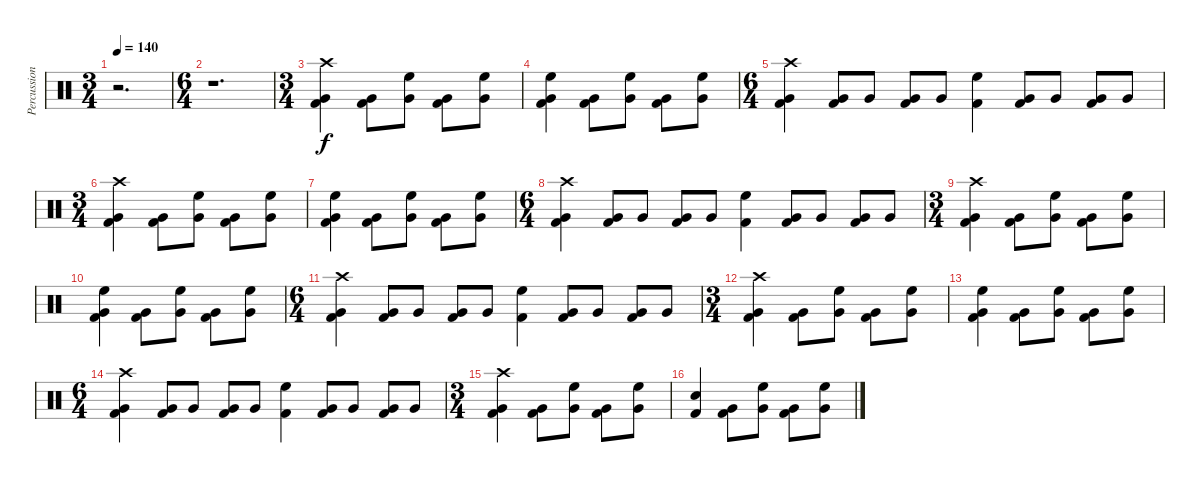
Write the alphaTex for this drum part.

\track ("Percussions" "Percussion") {instrument percussion}
\staff {score}
\articulation defaults
\ts (3 4)
\tempo 140
\clef neutral
\ks c
r.2{d dy f} |
\ts (6 4)
r.1{d} |
\ts (3 4)
("Crash high (hit)" "Very Low Tom (hit)" "Kick (hit) 2").4 ("Very Low Tom (hit)" "Kick (hit) 2").8 ("High Floor Tom (hit)" "Very Low Tom (hit)").8 ("Very Low Tom (hit)" "Kick (hit) 2").8 ("High Floor Tom (hit)" "Very Low Tom (hit)").8 |
("High Floor Tom (hit)" "Very Low Tom (hit)" "Kick (hit) 2").4 ("Very Low Tom (hit)" "Kick (hit) 2").8 ("High Floor Tom (hit)" "Very Low Tom (hit)").8 ("Very Low Tom (hit)" "Kick (hit) 2").8 ("High Floor Tom (hit)" "Very Low Tom (hit)").8 |
\ts (6 4)
("Crash high (hit)" "Very Low Tom (hit)" "Kick (hit) 2").4 ("Very Low Tom (hit)" "Kick (hit) 2").8 "Very Low Tom (hit)".8 ("Very Low Tom (hit)" "Kick (hit) 2").8 "Very Low Tom (hit)".8 ("High Floor Tom (hit)" "Kick (hit) 2").4 ("Very Low Tom (hit)" "Kick (hit) 2").8 "Very Low Tom (hit)".8 ("Very Low Tom (hit)" "Kick (hit) 2").8 "Very Low Tom (hit)".8 |
\ts (3 4)
("Crash high (hit)" "Very Low Tom (hit)" "Kick (hit) 2").4 ("Very Low Tom (hit)" "Kick (hit) 2").8 ("High Floor Tom (hit)" "Very Low Tom (hit)").8 ("Very Low Tom (hit)" "Kick (hit) 2").8 ("High Floor Tom (hit)" "Very Low Tom (hit)").8 |
("High Floor Tom (hit)" "Very Low Tom (hit)" "Kick (hit) 2").4 ("Very Low Tom (hit)" "Kick (hit) 2").8 ("High Floor Tom (hit)" "Very Low Tom (hit)").8 ("Very Low Tom (hit)" "Kick (hit) 2").8 ("High Floor Tom (hit)" "Very Low Tom (hit)").8 |
\ts (6 4)
("Crash high (hit)" "Very Low Tom (hit)" "Kick (hit) 2").4 ("Very Low Tom (hit)" "Kick (hit) 2").8 "Very Low Tom (hit)".8 ("Very Low Tom (hit)" "Kick (hit) 2").8 "Very Low Tom (hit)".8 ("High Floor Tom (hit)" "Kick (hit) 2").4 ("Very Low Tom (hit)" "Kick (hit) 2").8 "Very Low Tom (hit)".8 ("Very Low Tom (hit)" "Kick (hit) 2").8 "Very Low Tom (hit)".8 |
\ts (3 4)
("Crash high (hit)" "Very Low Tom (hit)" "Kick (hit) 2").4 ("Very Low Tom (hit)" "Kick (hit) 2").8 ("High Floor Tom (hit)" "Very Low Tom (hit)").8 ("Very Low Tom (hit)" "Kick (hit) 2").8 ("High Floor Tom (hit)" "Very Low Tom (hit)").8 |
("High Floor Tom (hit)" "Very Low Tom (hit)" "Kick (hit) 2").4 ("Very Low Tom (hit)" "Kick (hit) 2").8 ("High Floor Tom (hit)" "Very Low Tom (hit)").8 ("Very Low Tom (hit)" "Kick (hit) 2").8 ("High Floor Tom (hit)" "Very Low Tom (hit)").8 |
\ts (6 4)
("Crash high (hit)" "Very Low Tom (hit)" "Kick (hit) 2").4 ("Very Low Tom (hit)" "Kick (hit) 2").8 "Very Low Tom (hit)".8 ("Very Low Tom (hit)" "Kick (hit) 2").8 "Very Low Tom (hit)".8 ("High Floor Tom (hit)" "Kick (hit) 2").4 ("Very Low Tom (hit)" "Kick (hit) 2").8 "Very Low Tom (hit)".8 ("Very Low Tom (hit)" "Kick (hit) 2").8 "Very Low Tom (hit)".8 |
\ts (3 4)
("Crash high (hit)" "Very Low Tom (hit)" "Kick (hit) 2").4 ("Very Low Tom (hit)" "Kick (hit) 2").8 ("High Floor Tom (hit)" "Very Low Tom (hit)").8 ("Very Low Tom (hit)" "Kick (hit) 2").8 ("High Floor Tom (hit)" "Very Low Tom (hit)").8 |
("High Floor Tom (hit)" "Very Low Tom (hit)" "Kick (hit) 2").4 ("Very Low Tom (hit)" "Kick (hit) 2").8 ("High Floor Tom (hit)" "Very Low Tom (hit)").8 ("Very Low Tom (hit)" "Kick (hit) 2").8 ("High Floor Tom (hit)" "Very Low Tom (hit)").8 |
\ts (6 4)
("Crash high (hit)" "Very Low Tom (hit)" "Kick (hit) 2").4 ("Very Low Tom (hit)" "Kick (hit) 2").8 "Very Low Tom (hit)".8 ("Very Low Tom (hit)" "Kick (hit) 2").8 "Very Low Tom (hit)".8 ("High Floor Tom (hit)" "Kick (hit) 2").4 ("Very Low Tom (hit)" "Kick (hit) 2").8 "Very Low Tom (hit)".8 ("Very Low Tom (hit)" "Kick (hit) 2").8 "Very Low Tom (hit)".8 |
\ts (3 4)
("Crash high (hit)" "Very Low Tom (hit)" "Kick (hit) 2").4 ("Very Low Tom (hit)" "Kick (hit) 2").8 ("High Floor Tom (hit)" "Very Low Tom (hit)").8 ("Very Low Tom (hit)" "Kick (hit) 2").8 ("High Floor Tom (hit)" "Very Low Tom (hit)").8 |
("Electric Snare (hit)" "Kick (hit) 2").4 ("Very Low Tom (hit)" "Kick (hit) 2").8 ("High Floor Tom (hit)" "Very Low Tom (hit)").8 ("Very Low Tom (hit)" "Kick (hit) 2").8 ("High Floor Tom (hit)" "Very Low Tom (hit)").8
